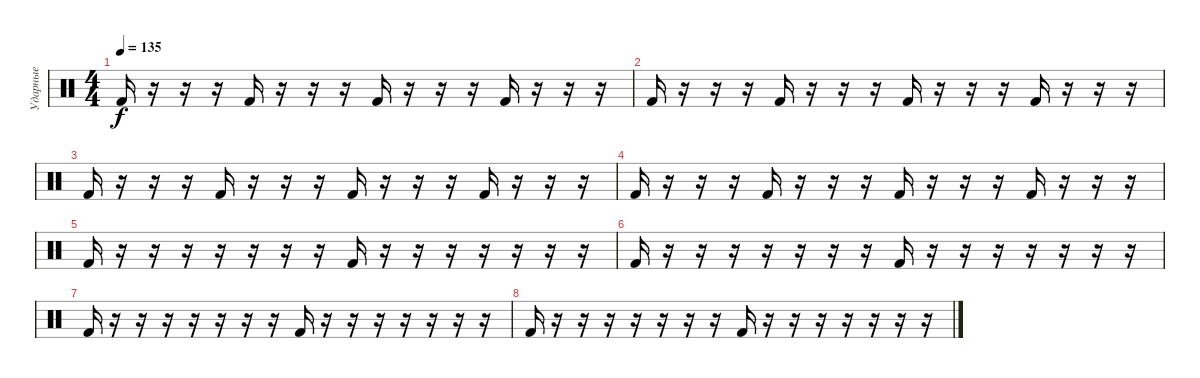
\track ("Ударные" "Ударные") {instrument percussion}
\staff {score}
\articulation defaults
\ts (4 4)
\tempo 135
\clef neutral
\ks c "Kick (hit) 2".16{dy f}
r.16 r.16 r.16 "Kick (hit) 2".16 r.16 r.16 r.16 "Kick (hit) 2".16 r.16 r.16 r.16 "Kick (hit) 2".16 r.16 r.16 r.16 |
"Kick (hit) 2".16 r.16 r.16 r.16 "Kick (hit) 2".16 r.16 r.16 r.16 "Kick (hit) 2".16 r.16 r.16 r.16 "Kick (hit) 2".16 r.16 r.16 r.16 |
"Kick (hit) 2".16 r.16 r.16 r.16 "Kick (hit) 2".16 r.16 r.16 r.16 "Kick (hit) 2".16 r.16 r.16 r.16 "Kick (hit) 2".16 r.16 r.16 r.16 |
"Kick (hit) 2".16 r.16 r.16 r.16 "Kick (hit) 2".16 r.16 r.16 r.16 "Kick (hit) 2".16 r.16 r.16 r.16 "Kick (hit) 2".16 r.16 r.16 r.16 |
"Kick (hit) 2".16 r.16 r.16 r.16 r.16 r.16 r.16 r.16 "Kick (hit) 2".16 r.16 r.16 r.16 r.16 r.16 r.16 r.16 |
"Kick (hit) 2".16 r.16 r.16 r.16 r.16 r.16 r.16 r.16 "Kick (hit) 2".16 r.16 r.16 r.16 r.16 r.16 r.16 r.16 |
"Kick (hit) 2".16 r.16 r.16 r.16 r.16 r.16 r.16 r.16 "Kick (hit) 2".16 r.16 r.16 r.16 r.16 r.16 r.16 r.16 |
"Kick (hit) 2".16 r.16 r.16 r.16 r.16 r.16 r.16 r.16 "Kick (hit) 2".16 r.16 r.16 r.16 r.16 r.16 r.16 r.16
